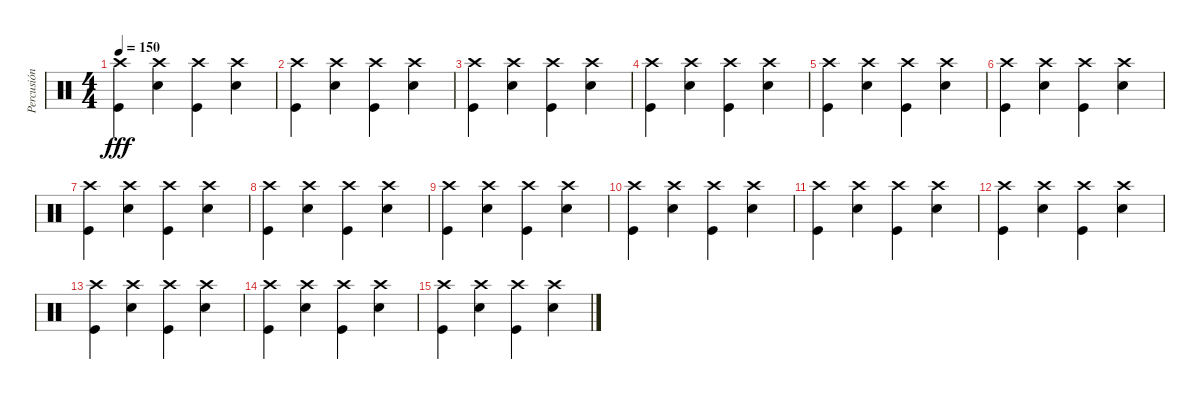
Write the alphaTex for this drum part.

\track ("Percusión" "Percusión") {instrument percussion bank 106}
\staff {score}
\articulation defaults
\ts (4 4)
\tempo 150
\clef neutral
\ks c
("Crash high (hit)" "Kick (hit)").4{dy fff} ("Crash high (hit)" "Electric Snare (hit)").4 ("Crash high (hit)" "Kick (hit)").4 ("Crash high (hit)" "Electric Snare (hit)").4 |
("Crash high (hit)" "Kick (hit)").4 ("Crash high (hit)" "Electric Snare (hit)").4 ("Crash high (hit)" "Kick (hit)").4 ("Crash high (hit)" "Electric Snare (hit)").4 |
("Crash high (hit)" "Kick (hit)").4 ("Crash high (hit)" "Electric Snare (hit)").4 ("Crash high (hit)" "Kick (hit)").4 ("Crash high (hit)" "Electric Snare (hit)").4 |
("Crash high (hit)" "Kick (hit)").4 ("Crash high (hit)" "Electric Snare (hit)").4 ("Crash high (hit)" "Kick (hit)").4 ("Crash high (hit)" "Electric Snare (hit)").4 |
("Crash high (hit)" "Kick (hit)").4 ("Crash high (hit)" "Electric Snare (hit)").4 ("Crash high (hit)" "Kick (hit)").4 ("Crash high (hit)" "Electric Snare (hit)").4 |
("Crash high (hit)" "Kick (hit)").4 ("Crash high (hit)" "Electric Snare (hit)").4 ("Crash high (hit)" "Kick (hit)").4 ("Crash high (hit)" "Electric Snare (hit)").4 |
("Crash high (hit)" "Kick (hit)").4 ("Crash high (hit)" "Electric Snare (hit)").4 ("Crash high (hit)" "Kick (hit)").4 ("Crash high (hit)" "Electric Snare (hit)").4 |
("Crash high (hit)" "Kick (hit)").4 ("Crash high (hit)" "Electric Snare (hit)").4 ("Crash high (hit)" "Kick (hit)").4 ("Crash high (hit)" "Electric Snare (hit)").4 |
("Crash high (hit)" "Kick (hit)").4 ("Crash high (hit)" "Electric Snare (hit)").4 ("Crash high (hit)" "Kick (hit)").4 ("Crash high (hit)" "Electric Snare (hit)").4 |
("Crash high (hit)" "Kick (hit)").4 ("Crash high (hit)" "Electric Snare (hit)").4 ("Crash high (hit)" "Kick (hit)").4 ("Crash high (hit)" "Electric Snare (hit)").4 |
("Crash high (hit)" "Kick (hit)").4 ("Crash high (hit)" "Electric Snare (hit)").4 ("Crash high (hit)" "Kick (hit)").4 ("Crash high (hit)" "Electric Snare (hit)").4 |
("Crash high (hit)" "Kick (hit)").4 ("Crash high (hit)" "Electric Snare (hit)").4 ("Crash high (hit)" "Kick (hit)").4 ("Crash high (hit)" "Electric Snare (hit)").4 |
("Crash high (hit)" "Kick (hit)").4 ("Crash high (hit)" "Electric Snare (hit)").4 ("Crash high (hit)" "Kick (hit)").4 ("Crash high (hit)" "Electric Snare (hit)").4 |
("Crash high (hit)" "Kick (hit)").4 ("Crash high (hit)" "Electric Snare (hit)").4 ("Crash high (hit)" "Kick (hit)").4 ("Crash high (hit)" "Electric Snare (hit)").4 |
("Crash high (hit)" "Kick (hit)").4 ("Crash high (hit)" "Electric Snare (hit)").4 ("Crash high (hit)" "Kick (hit)").4 ("Crash high (hit)" "Electric Snare (hit)").4
